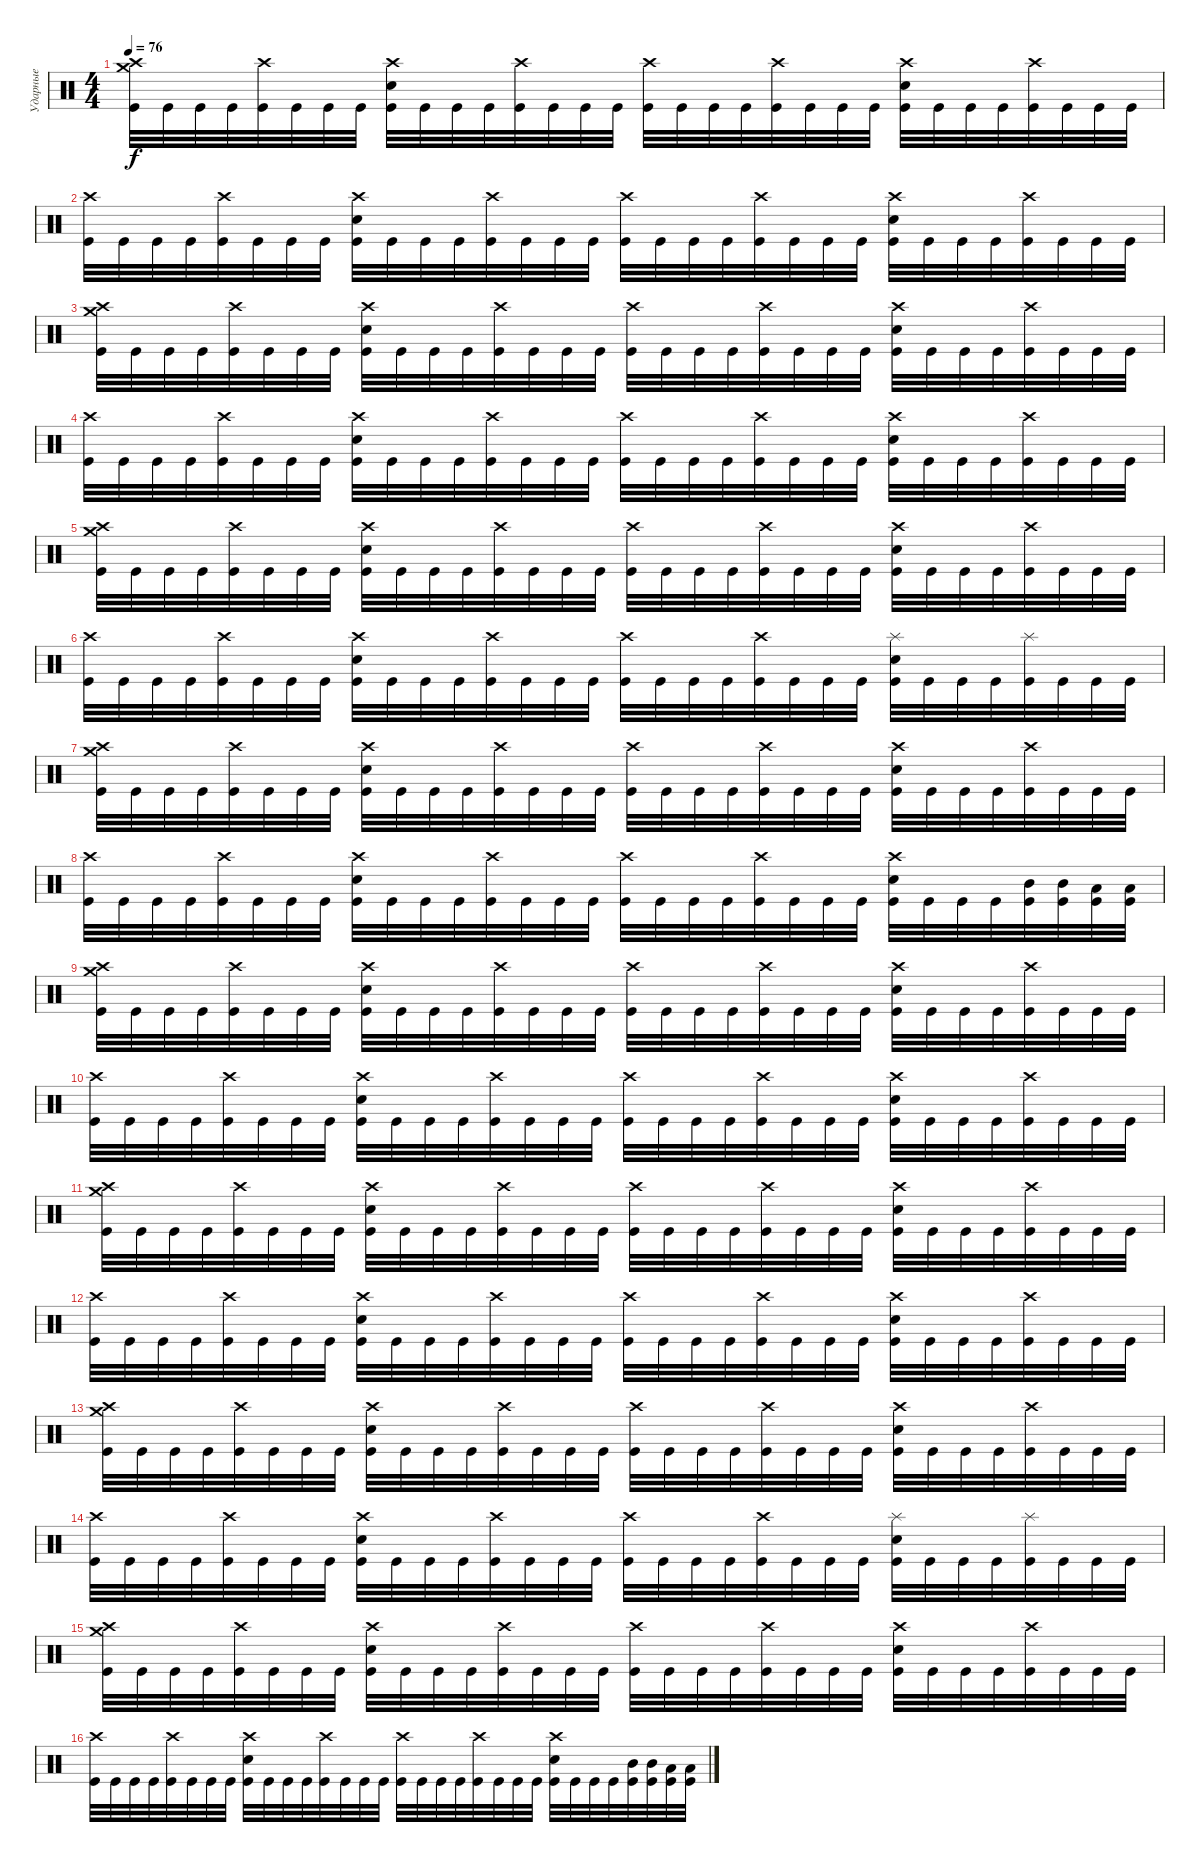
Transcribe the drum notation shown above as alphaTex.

\track ("Ударные" "Ударные") {instrument percussion}
\staff {score}
\articulation defaults
\ts (4 4)
\tempo 76
\clef neutral
\ks c
("Crash medium (hit)" "Crash high (hit)" "Kick (hit)").32{dy f} "Kick (hit)".32 "Kick (hit)".32 "Kick (hit)".32 ("Crash high (hit)" "Kick (hit)").32 "Kick (hit)".32 "Kick (hit)".32 "Kick (hit)".32 ("Crash high (hit)" "Snare (hit) 2" "Kick (hit)").32 "Kick (hit)".32 "Kick (hit)".32 "Kick (hit)".32 ("Crash high (hit)" "Kick (hit)").32 "Kick (hit)".32 "Kick (hit)".32 "Kick (hit)".32 ("Crash high (hit)" "Kick (hit)").32 "Kick (hit)".32 "Kick (hit)".32 "Kick (hit)".32 ("Crash high (hit)" "Kick (hit)").32 "Kick (hit)".32 "Kick (hit)".32 "Kick (hit)".32 ("Crash high (hit)" "Snare (hit) 2" "Kick (hit)").32 "Kick (hit)".32 "Kick (hit)".32 "Kick (hit)".32 ("Crash high (hit)" "Kick (hit)").32 "Kick (hit)".32 "Kick (hit)".32 "Kick (hit)".32 |
("Crash high (hit)" "Kick (hit)").32 "Kick (hit)".32 "Kick (hit)".32 "Kick (hit)".32 ("Crash high (hit)" "Kick (hit)").32 "Kick (hit)".32 "Kick (hit)".32 "Kick (hit)".32 ("Crash high (hit)" "Snare (hit) 2" "Kick (hit)").32 "Kick (hit)".32 "Kick (hit)".32 "Kick (hit)".32 ("Crash high (hit)" "Kick (hit)").32 "Kick (hit)".32 "Kick (hit)".32 "Kick (hit)".32 ("Crash high (hit)" "Kick (hit)").32 "Kick (hit)".32 "Kick (hit)".32 "Kick (hit)".32 ("Crash high (hit)" "Kick (hit)").32 "Kick (hit)".32 "Kick (hit)".32 "Kick (hit)".32 ("Crash high (hit)" "Snare (hit) 2" "Kick (hit)").32 "Kick (hit)".32 "Kick (hit)".32 "Kick (hit)".32 ("Crash high (hit)" "Kick (hit)").32 "Kick (hit)".32 "Kick (hit)".32 "Kick (hit)".32 |
("Crash medium (hit)" "Crash high (hit)" "Kick (hit)").32 "Kick (hit)".32 "Kick (hit)".32 "Kick (hit)".32 ("Crash high (hit)" "Kick (hit)").32 "Kick (hit)".32 "Kick (hit)".32 "Kick (hit)".32 ("Crash high (hit)" "Snare (hit) 2" "Kick (hit)").32 "Kick (hit)".32 "Kick (hit)".32 "Kick (hit)".32 ("Crash high (hit)" "Kick (hit)").32 "Kick (hit)".32 "Kick (hit)".32 "Kick (hit)".32 ("Crash high (hit)" "Kick (hit)").32 "Kick (hit)".32 "Kick (hit)".32 "Kick (hit)".32 ("Crash high (hit)" "Kick (hit)").32 "Kick (hit)".32 "Kick (hit)".32 "Kick (hit)".32 ("Crash high (hit)" "Snare (hit) 2" "Kick (hit)").32 "Kick (hit)".32 "Kick (hit)".32 "Kick (hit)".32 ("Crash high (hit)" "Kick (hit)").32 "Kick (hit)".32 "Kick (hit)".32 "Kick (hit)".32 |
("Crash high (hit)" "Kick (hit)").32 "Kick (hit)".32 "Kick (hit)".32 "Kick (hit)".32 ("Crash high (hit)" "Kick (hit)").32 "Kick (hit)".32 "Kick (hit)".32 "Kick (hit)".32 ("Crash high (hit)" "Snare (hit) 2" "Kick (hit)").32 "Kick (hit)".32 "Kick (hit)".32 "Kick (hit)".32 ("Crash high (hit)" "Kick (hit)").32 "Kick (hit)".32 "Kick (hit)".32 "Kick (hit)".32 ("Crash high (hit)" "Kick (hit)").32 "Kick (hit)".32 "Kick (hit)".32 "Kick (hit)".32 ("Crash high (hit)" "Kick (hit)").32 "Kick (hit)".32 "Kick (hit)".32 "Kick (hit)".32 ("Crash high (hit)" "Snare (hit) 2" "Kick (hit)").32 "Kick (hit)".32 "Kick (hit)".32 "Kick (hit)".32 ("Crash high (hit)" "Kick (hit)").32 "Kick (hit)".32 "Kick (hit)".32 "Kick (hit)".32 |
("Crash medium (hit)" "Crash high (hit)" "Kick (hit)").32 "Kick (hit)".32 "Kick (hit)".32 "Kick (hit)".32 ("Crash high (hit)" "Kick (hit)").32 "Kick (hit)".32 "Kick (hit)".32 "Kick (hit)".32 ("Crash high (hit)" "Snare (hit) 2" "Kick (hit)").32 "Kick (hit)".32 "Kick (hit)".32 "Kick (hit)".32 ("Crash high (hit)" "Kick (hit)").32 "Kick (hit)".32 "Kick (hit)".32 "Kick (hit)".32 ("Crash high (hit)" "Kick (hit)").32 "Kick (hit)".32 "Kick (hit)".32 "Kick (hit)".32 ("Crash high (hit)" "Kick (hit)").32 "Kick (hit)".32 "Kick (hit)".32 "Kick (hit)".32 ("Crash high (hit)" "Snare (hit) 2" "Kick (hit)").32 "Kick (hit)".32 "Kick (hit)".32 "Kick (hit)".32 ("Crash high (hit)" "Kick (hit)").32 "Kick (hit)".32 "Kick (hit)".32 "Kick (hit)".32 |
("Crash high (hit)" "Kick (hit)").32 "Kick (hit)".32 "Kick (hit)".32 "Kick (hit)".32 ("Crash high (hit)" "Kick (hit)").32 "Kick (hit)".32 "Kick (hit)".32 "Kick (hit)".32 ("Crash high (hit)" "Snare (hit) 2" "Kick (hit)").32 "Kick (hit)".32 "Kick (hit)".32 "Kick (hit)".32 ("Crash high (hit)" "Kick (hit)").32 "Kick (hit)".32 "Kick (hit)".32 "Kick (hit)".32 ("Crash high (hit)" "Kick (hit)").32 "Kick (hit)".32 "Kick (hit)".32 "Kick (hit)".32 ("Crash high (hit)" "Kick (hit)").32 "Kick (hit)".32 "Kick (hit)".32 "Kick (hit)".32 ("Splash (hit)" "Snare (hit) 2" "Kick (hit)").32 "Kick (hit)".32 "Kick (hit)".32 "Kick (hit)".32 ("Splash (hit)" "Kick (hit)").32 "Kick (hit)".32 "Kick (hit)".32 "Kick (hit)".32 |
("Crash medium (hit)" "Crash high (hit)" "Kick (hit)").32 "Kick (hit)".32 "Kick (hit)".32 "Kick (hit)".32 ("Crash high (hit)" "Kick (hit)").32 "Kick (hit)".32 "Kick (hit)".32 "Kick (hit)".32 ("Crash high (hit)" "Snare (hit) 2" "Kick (hit)").32 "Kick (hit)".32 "Kick (hit)".32 "Kick (hit)".32 ("Crash high (hit)" "Kick (hit)").32 "Kick (hit)".32 "Kick (hit)".32 "Kick (hit)".32 ("Crash high (hit)" "Kick (hit)").32 "Kick (hit)".32 "Kick (hit)".32 "Kick (hit)".32 ("Crash high (hit)" "Kick (hit)").32 "Kick (hit)".32 "Kick (hit)".32 "Kick (hit)".32 ("Crash high (hit)" "Snare (hit) 2" "Kick (hit)").32 "Kick (hit)".32 "Kick (hit)".32 "Kick (hit)".32 ("Crash high (hit)" "Kick (hit)").32 "Kick (hit)".32 "Kick (hit)".32 "Kick (hit)".32 |
("Crash high (hit)" "Kick (hit)").32 "Kick (hit)".32 "Kick (hit)".32 "Kick (hit)".32 ("Crash high (hit)" "Kick (hit)").32 "Kick (hit)".32 "Kick (hit)".32 "Kick (hit)".32 ("Crash high (hit)" "Snare (hit) 2" "Kick (hit)").32 "Kick (hit)".32 "Kick (hit)".32 "Kick (hit)".32 ("Crash high (hit)" "Kick (hit)").32 "Kick (hit)".32 "Kick (hit)".32 "Kick (hit)".32 ("Crash high (hit)" "Kick (hit)").32 "Kick (hit)".32 "Kick (hit)".32 "Kick (hit)".32 ("Crash high (hit)" "Kick (hit)").32 "Kick (hit)".32 "Kick (hit)".32 "Kick (hit)".32 ("Crash high (hit)" "Snare (hit) 2" "Kick (hit)").32 "Kick (hit)".32 "Kick (hit)".32 "Kick (hit)".32 ("Mid Tom (hit)" "Kick (hit)").32 ("Mid Tom (hit)" "Kick (hit)").32 ("Low Tom (hit)" "Kick (hit)").32 ("Low Tom (hit)" "Kick (hit)").32 |
("Crash medium (hit)" "Crash high (hit)" "Kick (hit)").32 "Kick (hit)".32 "Kick (hit)".32 "Kick (hit)".32 ("Crash high (hit)" "Kick (hit)").32 "Kick (hit)".32 "Kick (hit)".32 "Kick (hit)".32 ("Crash high (hit)" "Snare (hit) 2" "Kick (hit)").32 "Kick (hit)".32 "Kick (hit)".32 "Kick (hit)".32 ("Crash high (hit)" "Kick (hit)").32 "Kick (hit)".32 "Kick (hit)".32 "Kick (hit)".32 ("Crash high (hit)" "Kick (hit)").32 "Kick (hit)".32 "Kick (hit)".32 "Kick (hit)".32 ("Crash high (hit)" "Kick (hit)").32 "Kick (hit)".32 "Kick (hit)".32 "Kick (hit)".32 ("Crash high (hit)" "Snare (hit) 2" "Kick (hit)").32 "Kick (hit)".32 "Kick (hit)".32 "Kick (hit)".32 ("Crash high (hit)" "Kick (hit)").32 "Kick (hit)".32 "Kick (hit)".32 "Kick (hit)".32 |
("Crash high (hit)" "Kick (hit)").32 "Kick (hit)".32 "Kick (hit)".32 "Kick (hit)".32 ("Crash high (hit)" "Kick (hit)").32 "Kick (hit)".32 "Kick (hit)".32 "Kick (hit)".32 ("Crash high (hit)" "Snare (hit) 2" "Kick (hit)").32 "Kick (hit)".32 "Kick (hit)".32 "Kick (hit)".32 ("Crash high (hit)" "Kick (hit)").32 "Kick (hit)".32 "Kick (hit)".32 "Kick (hit)".32 ("Crash high (hit)" "Kick (hit)").32 "Kick (hit)".32 "Kick (hit)".32 "Kick (hit)".32 ("Crash high (hit)" "Kick (hit)").32 "Kick (hit)".32 "Kick (hit)".32 "Kick (hit)".32 ("Crash high (hit)" "Snare (hit) 2" "Kick (hit)").32 "Kick (hit)".32 "Kick (hit)".32 "Kick (hit)".32 ("Crash high (hit)" "Kick (hit)").32 "Kick (hit)".32 "Kick (hit)".32 "Kick (hit)".32 |
("Crash medium (hit)" "Crash high (hit)" "Kick (hit)").32 "Kick (hit)".32 "Kick (hit)".32 "Kick (hit)".32 ("Crash high (hit)" "Kick (hit)").32 "Kick (hit)".32 "Kick (hit)".32 "Kick (hit)".32 ("Crash high (hit)" "Snare (hit) 2" "Kick (hit)").32 "Kick (hit)".32 "Kick (hit)".32 "Kick (hit)".32 ("Crash high (hit)" "Kick (hit)").32 "Kick (hit)".32 "Kick (hit)".32 "Kick (hit)".32 ("Crash high (hit)" "Kick (hit)").32 "Kick (hit)".32 "Kick (hit)".32 "Kick (hit)".32 ("Crash high (hit)" "Kick (hit)").32 "Kick (hit)".32 "Kick (hit)".32 "Kick (hit)".32 ("Crash high (hit)" "Snare (hit) 2" "Kick (hit)").32 "Kick (hit)".32 "Kick (hit)".32 "Kick (hit)".32 ("Crash high (hit)" "Kick (hit)").32 "Kick (hit)".32 "Kick (hit)".32 "Kick (hit)".32 |
("Crash high (hit)" "Kick (hit)").32 "Kick (hit)".32 "Kick (hit)".32 "Kick (hit)".32 ("Crash high (hit)" "Kick (hit)").32 "Kick (hit)".32 "Kick (hit)".32 "Kick (hit)".32 ("Crash high (hit)" "Snare (hit) 2" "Kick (hit)").32 "Kick (hit)".32 "Kick (hit)".32 "Kick (hit)".32 ("Crash high (hit)" "Kick (hit)").32 "Kick (hit)".32 "Kick (hit)".32 "Kick (hit)".32 ("Crash high (hit)" "Kick (hit)").32 "Kick (hit)".32 "Kick (hit)".32 "Kick (hit)".32 ("Crash high (hit)" "Kick (hit)").32 "Kick (hit)".32 "Kick (hit)".32 "Kick (hit)".32 ("Crash high (hit)" "Snare (hit) 2" "Kick (hit)").32 "Kick (hit)".32 "Kick (hit)".32 "Kick (hit)".32 ("Crash high (hit)" "Kick (hit)").32 "Kick (hit)".32 "Kick (hit)".32 "Kick (hit)".32 |
("Crash medium (hit)" "Crash high (hit)" "Kick (hit)").32 "Kick (hit)".32 "Kick (hit)".32 "Kick (hit)".32 ("Crash high (hit)" "Kick (hit)").32 "Kick (hit)".32 "Kick (hit)".32 "Kick (hit)".32 ("Crash high (hit)" "Snare (hit) 2" "Kick (hit)").32 "Kick (hit)".32 "Kick (hit)".32 "Kick (hit)".32 ("Crash high (hit)" "Kick (hit)").32 "Kick (hit)".32 "Kick (hit)".32 "Kick (hit)".32 ("Crash high (hit)" "Kick (hit)").32 "Kick (hit)".32 "Kick (hit)".32 "Kick (hit)".32 ("Crash high (hit)" "Kick (hit)").32 "Kick (hit)".32 "Kick (hit)".32 "Kick (hit)".32 ("Crash high (hit)" "Snare (hit) 2" "Kick (hit)").32 "Kick (hit)".32 "Kick (hit)".32 "Kick (hit)".32 ("Crash high (hit)" "Kick (hit)").32 "Kick (hit)".32 "Kick (hit)".32 "Kick (hit)".32 |
("Crash high (hit)" "Kick (hit)").32 "Kick (hit)".32 "Kick (hit)".32 "Kick (hit)".32 ("Crash high (hit)" "Kick (hit)").32 "Kick (hit)".32 "Kick (hit)".32 "Kick (hit)".32 ("Crash high (hit)" "Snare (hit) 2" "Kick (hit)").32 "Kick (hit)".32 "Kick (hit)".32 "Kick (hit)".32 ("Crash high (hit)" "Kick (hit)").32 "Kick (hit)".32 "Kick (hit)".32 "Kick (hit)".32 ("Crash high (hit)" "Kick (hit)").32 "Kick (hit)".32 "Kick (hit)".32 "Kick (hit)".32 ("Crash high (hit)" "Kick (hit)").32 "Kick (hit)".32 "Kick (hit)".32 "Kick (hit)".32 ("Splash (hit)" "Snare (hit) 2" "Kick (hit)").32 "Kick (hit)".32 "Kick (hit)".32 "Kick (hit)".32 ("Splash (hit)" "Kick (hit)").32 "Kick (hit)".32 "Kick (hit)".32 "Kick (hit)".32 |
("Crash medium (hit)" "Crash high (hit)" "Kick (hit)").32 "Kick (hit)".32 "Kick (hit)".32 "Kick (hit)".32 ("Crash high (hit)" "Kick (hit)").32 "Kick (hit)".32 "Kick (hit)".32 "Kick (hit)".32 ("Crash high (hit)" "Snare (hit) 2" "Kick (hit)").32 "Kick (hit)".32 "Kick (hit)".32 "Kick (hit)".32 ("Crash high (hit)" "Kick (hit)").32 "Kick (hit)".32 "Kick (hit)".32 "Kick (hit)".32 ("Crash high (hit)" "Kick (hit)").32 "Kick (hit)".32 "Kick (hit)".32 "Kick (hit)".32 ("Crash high (hit)" "Kick (hit)").32 "Kick (hit)".32 "Kick (hit)".32 "Kick (hit)".32 ("Crash high (hit)" "Snare (hit) 2" "Kick (hit)").32 "Kick (hit)".32 "Kick (hit)".32 "Kick (hit)".32 ("Crash high (hit)" "Kick (hit)").32 "Kick (hit)".32 "Kick (hit)".32 "Kick (hit)".32 |
("Crash high (hit)" "Kick (hit)").32 "Kick (hit)".32 "Kick (hit)".32 "Kick (hit)".32 ("Crash high (hit)" "Kick (hit)").32 "Kick (hit)".32 "Kick (hit)".32 "Kick (hit)".32 ("Crash high (hit)" "Snare (hit) 2" "Kick (hit)").32 "Kick (hit)".32 "Kick (hit)".32 "Kick (hit)".32 ("Crash high (hit)" "Kick (hit)").32 "Kick (hit)".32 "Kick (hit)".32 "Kick (hit)".32 ("Crash high (hit)" "Kick (hit)").32 "Kick (hit)".32 "Kick (hit)".32 "Kick (hit)".32 ("Crash high (hit)" "Kick (hit)").32 "Kick (hit)".32 "Kick (hit)".32 "Kick (hit)".32 ("Crash high (hit)" "Snare (hit) 2" "Kick (hit)").32 "Kick (hit)".32 "Kick (hit)".32 "Kick (hit)".32 ("Mid Tom (hit)" "Kick (hit)").32 ("Mid Tom (hit)" "Kick (hit)").32 ("Low Tom (hit)" "Kick (hit)").32 ("Low Tom (hit)" "Kick (hit)").32
